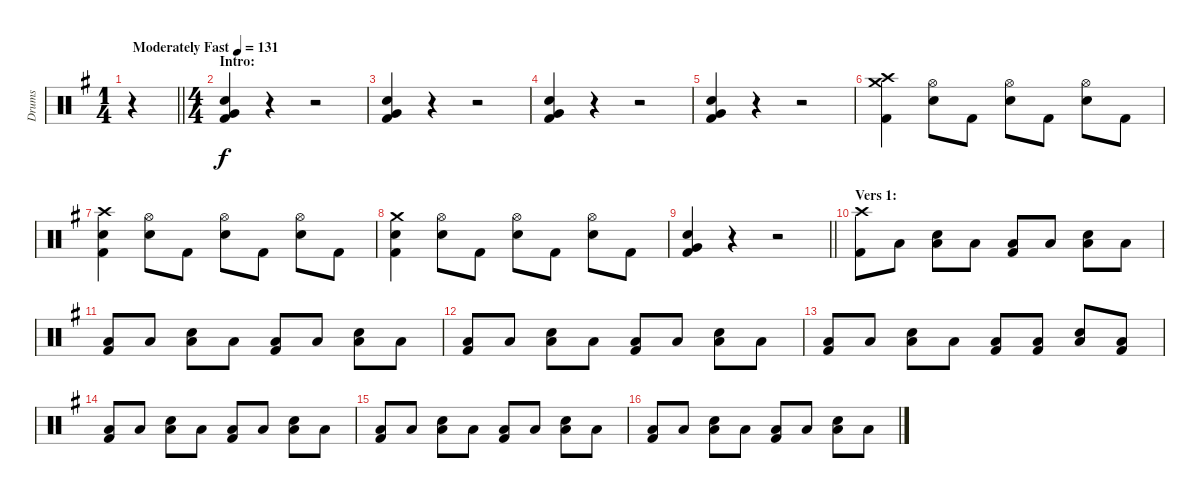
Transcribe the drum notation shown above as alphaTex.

\track ("Drums" "Drums") {instrument percussion}
\staff {score}
\articulation defaults
\ts (1 4)
\tempo (131 "Moderately Fast")
\clef neutral
\barLineRight lightlight
\ks g
r.4{dy f} |
\ts (4 4)
\section ("" "Intro:")
("Electric Snare (hit)" "Very Low Tom (hit)" "Kick (hit) 2").4 r.4 r.2 |
("Electric Snare (hit)" "Very Low Tom (hit)" "Kick (hit) 2").4 r.4 r.2 |
("Electric Snare (hit)" "Very Low Tom (hit)" "Kick (hit) 2").4 r.4 r.2 |
("Electric Snare (hit)" "Very Low Tom (hit)" "Kick (hit) 2").4 r.4 r.2 |
("Crash high (hit)" "Crash medium (hit)" "Kick (hit) 2").4 ("Hi-Hat (open)" "Electric Snare (hit)").8 "Kick (hit) 2".8 ("Hi-Hat (open)" "Electric Snare (hit)").8 "Kick (hit) 2".8 ("Hi-Hat (open)" "Electric Snare (hit)").8 "Kick (hit) 2".8 |
("Crash high (hit)" "Electric Snare (hit)" "Kick (hit) 2").4 ("Hi-Hat (open)" "Electric Snare (hit)").8 "Kick (hit) 2".8 ("Hi-Hat (open)" "Electric Snare (hit)").8 "Kick (hit) 2".8 ("Hi-Hat (open)" "Electric Snare (hit)").8 "Kick (hit) 2".8 |
("Crash medium (hit)" "Electric Snare (hit)" "Kick (hit) 2").4 ("Hi-Hat (open)" "Electric Snare (hit)").8 "Kick (hit) 2".8 ("Hi-Hat (open)" "Electric Snare (hit)").8 "Kick (hit) 2".8 ("Hi-Hat (open)" "Electric Snare (hit)").8 "Kick (hit) 2".8 |
\barLineRight lightlight
("Electric Snare (hit)" "Very Low Tom (hit)" "Kick (hit) 2").4 r.4 r.2 |
\section ("" "Vers 1:")
("Crash high (hit)" "Kick (hit) 2").8 "Low Floor Tom (hit)".8 ("Low Floor Tom (hit)" "Electric Snare (hit)").8 "Low Floor Tom (hit)".8 ("Low Floor Tom (hit)" "Kick (hit) 2").8 "Low Floor Tom (hit)".8 ("Low Floor Tom (hit)" "Electric Snare (hit)").8 "Low Floor Tom (hit)".8 |
("Low Floor Tom (hit)" "Kick (hit) 2").8 "Low Floor Tom (hit)".8 ("Low Floor Tom (hit)" "Electric Snare (hit)").8 "Low Floor Tom (hit)".8 ("Low Floor Tom (hit)" "Kick (hit) 2").8 "Low Floor Tom (hit)".8 ("Low Floor Tom (hit)" "Electric Snare (hit)").8 "Low Floor Tom (hit)".8 |
("Low Floor Tom (hit)" "Kick (hit) 2").8 "Low Floor Tom (hit)".8 ("Low Floor Tom (hit)" "Electric Snare (hit)").8 "Low Floor Tom (hit)".8 ("Low Floor Tom (hit)" "Kick (hit) 2").8 "Low Floor Tom (hit)".8 ("Low Floor Tom (hit)" "Electric Snare (hit)").8 "Low Floor Tom (hit)".8 |
("Low Floor Tom (hit)" "Kick (hit) 2").8 "Low Floor Tom (hit)".8 ("Low Floor Tom (hit)" "Electric Snare (hit)").8 "Low Floor Tom (hit)".8 ("Low Floor Tom (hit)" "Kick (hit) 2").8 ("Low Floor Tom (hit)" "Kick (hit) 2").8 ("Low Floor Tom (hit)" "Electric Snare (hit)").8 ("Low Floor Tom (hit)" "Kick (hit) 2").8 |
("Low Floor Tom (hit)" "Kick (hit) 2").8 "Low Floor Tom (hit)".8 ("Low Floor Tom (hit)" "Electric Snare (hit)").8 "Low Floor Tom (hit)".8 ("Low Floor Tom (hit)" "Kick (hit) 2").8 "Low Floor Tom (hit)".8 ("Low Floor Tom (hit)" "Electric Snare (hit)").8 "Low Floor Tom (hit)".8 |
("Low Floor Tom (hit)" "Kick (hit) 2").8 "Low Floor Tom (hit)".8 ("Low Floor Tom (hit)" "Electric Snare (hit)").8 "Low Floor Tom (hit)".8 ("Low Floor Tom (hit)" "Kick (hit) 2").8 "Low Floor Tom (hit)".8 ("Low Floor Tom (hit)" "Electric Snare (hit)").8 "Low Floor Tom (hit)".8 |
("Low Floor Tom (hit)" "Kick (hit) 2").8 "Low Floor Tom (hit)".8 ("Low Floor Tom (hit)" "Electric Snare (hit)").8 "Low Floor Tom (hit)".8 ("Low Floor Tom (hit)" "Kick (hit) 2").8 "Low Floor Tom (hit)".8 ("Low Floor Tom (hit)" "Electric Snare (hit)").8 "Low Floor Tom (hit)".8
